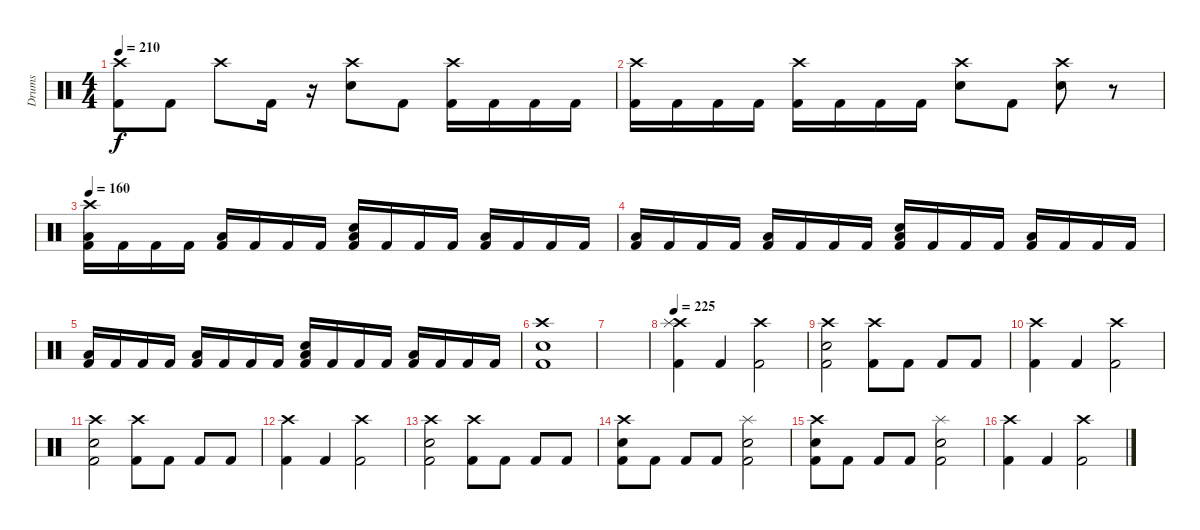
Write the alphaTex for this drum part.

\track ("Drums" "Drums") {instrument percussion}
\staff {score}
\articulation defaults
\ts (4 4)
\tempo 210
\clef neutral
\ks c
("Crash high (hit)" "Kick (hit) 2").8{dy f} "Kick (hit) 2".8 "Crash high (hit)".8 "Kick (hit) 2".16 r.16 ("Crash high (hit)" "Snare (hit) 2").8 "Kick (hit) 2".8 ("Crash high (hit)" "Kick (hit) 2").16 "Kick (hit) 2".16 "Kick (hit) 2".16 "Kick (hit) 2".16 |
("Crash high (hit)" "Kick (hit) 2").16 "Kick (hit) 2".16 "Kick (hit) 2".16 "Kick (hit) 2".16 ("Crash high (hit)" "Kick (hit) 2").16 "Kick (hit) 2".16 "Kick (hit) 2".16 "Kick (hit) 2".16 ("Crash high (hit)" "Snare (hit) 2").8 "Kick (hit) 2".8 ("Crash high (hit)" "Snare (hit) 2").8 r.8 |
\tempo 160
("Crash high (hit)" "Low Tom (hit)" "Kick (hit) 2").16 "Kick (hit) 2".16 "Kick (hit) 2".16 "Kick (hit) 2".16 ("Low Tom (hit)" "Kick (hit) 2").16 "Kick (hit) 2".16 "Kick (hit) 2".16 "Kick (hit) 2".16 ("Snare (hit) 2" "Low Tom (hit)" "Kick (hit) 2").16 "Kick (hit) 2".16 "Kick (hit) 2".16 "Kick (hit) 2".16 ("Low Tom (hit)" "Kick (hit) 2").16 "Kick (hit) 2".16 "Kick (hit) 2".16 "Kick (hit) 2".16 |
("Low Tom (hit)" "Kick (hit) 2").16 "Kick (hit) 2".16 "Kick (hit) 2".16 "Kick (hit) 2".16 ("Low Tom (hit)" "Kick (hit) 2").16 "Kick (hit) 2".16 "Kick (hit) 2".16 "Kick (hit) 2".16 ("Snare (hit) 2" "Low Tom (hit)" "Kick (hit) 2").16 "Kick (hit) 2".16 "Kick (hit) 2".16 "Kick (hit) 2".16 ("Low Tom (hit)" "Kick (hit) 2").16 "Kick (hit) 2".16 "Kick (hit) 2".16 "Kick (hit) 2".16 |
("Low Tom (hit)" "Kick (hit) 2").16 "Kick (hit) 2".16 "Kick (hit) 2".16 "Kick (hit) 2".16 ("Low Tom (hit)" "Kick (hit) 2").16 "Kick (hit) 2".16 "Kick (hit) 2".16 "Kick (hit) 2".16 ("Snare (hit) 2" "Low Tom (hit)" "Kick (hit) 2").16 "Kick (hit) 2".16 "Kick (hit) 2".16 "Kick (hit) 2".16 ("Low Tom (hit)" "Kick (hit) 2").16 "Kick (hit) 2".16 "Kick (hit) 2".16 "Kick (hit) 2".16 |
("Crash high (hit)" "Snare (hit) 2" "Kick (hit) 2").1 |
|
\tempo 225
("Crash high (hit)" "Splash (hit)" "Kick (hit) 2").4 "Kick (hit) 2".4 ("Crash high (hit)" "Kick (hit) 2").2 |
("Crash high (hit)" "Snare (hit) 2" "Kick (hit) 2").2 ("Crash high (hit)" "Kick (hit) 2").8 "Kick (hit) 2".8 "Kick (hit) 2".8 "Kick (hit) 2".8 |
("Crash high (hit)" "Kick (hit) 2").4 "Kick (hit) 2".4 ("Crash high (hit)" "Kick (hit) 2").2 |
("Crash high (hit)" "Snare (hit) 2" "Kick (hit) 2").2 ("Crash high (hit)" "Kick (hit) 2").8 "Kick (hit) 2".8 "Kick (hit) 2".8 "Kick (hit) 2".8 |
("Crash high (hit)" "Kick (hit) 2").4 "Kick (hit) 2".4 ("Crash high (hit)" "Kick (hit) 2").2 |
("Crash high (hit)" "Snare (hit) 2" "Kick (hit) 2").2 ("Crash high (hit)" "Kick (hit) 2").8 "Kick (hit) 2".8 "Kick (hit) 2".8 "Kick (hit) 2".8 |
("Crash high (hit)" "Snare (hit) 2" "Kick (hit) 2").8 "Kick (hit) 2".8 "Kick (hit) 2".8 "Kick (hit) 2".8 ("Splash (hit)" "Snare (hit) 2" "Kick (hit) 2").2 |
("Crash high (hit)" "Snare (hit) 2" "Kick (hit) 2").8 "Kick (hit) 2".8 "Kick (hit) 2".8 "Kick (hit) 2".8 ("Splash (hit)" "Snare (hit) 2" "Kick (hit) 2").2 |
("Crash high (hit)" "Kick (hit) 2").4 "Kick (hit) 2".4 ("Crash high (hit)" "Kick (hit) 2").2
